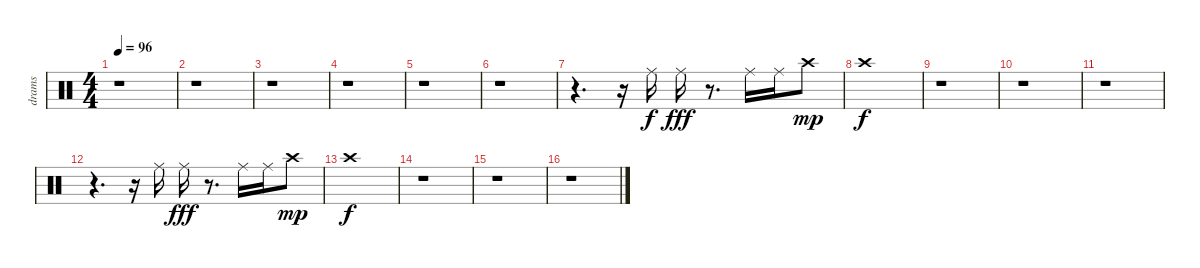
\track ("drams" "drams") {instrument percussion}
\staff {score}
\articulation defaults
\ts (4 4)
\tempo 96
\clef neutral
\ks c
r.1{dy f} |
r.1 |
r.1 |
r.1 |
r.1 |
r.1 |
r.4{d} r.16 "Ride (middle)".16 "Ride (middle)".16{dy fff} r.8{d} "Ride (middle)".16 "Ride (middle)".16 "Crash high (hit)".8{dy mp} |
"Crash high (hit)".1{dy f} |
r.1 |
r.1 |
r.1 |
r.4{d} r.16 "Ride (middle)".16 "Ride (middle)".16{dy fff} r.8{d} "Ride (middle)".16 "Ride (middle)".16 "Crash high (hit)".8{dy mp} |
"Crash high (hit)".1{dy f} |
r.1 |
r.1 |
r.1
